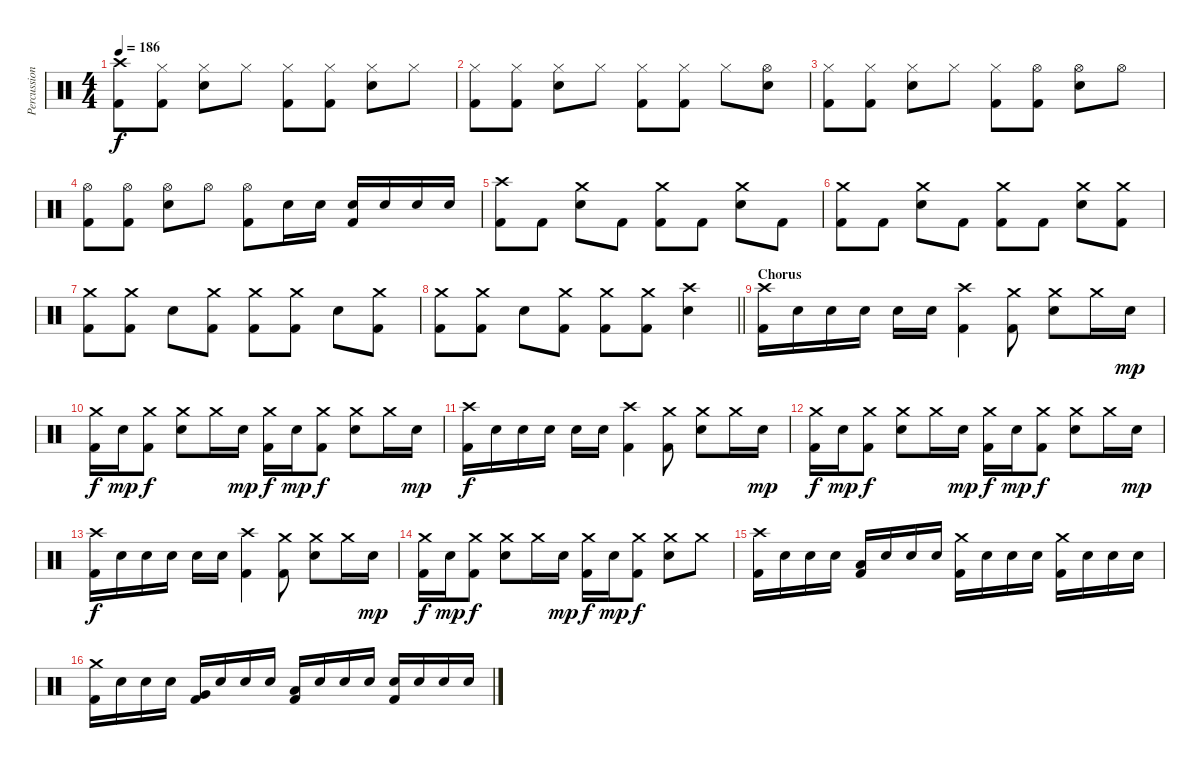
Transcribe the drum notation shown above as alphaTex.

\track ("Percussion" "Percussion") {instrument percussion}
\staff {score}
\articulation defaults
\ts (4 4)
\tempo 186
\clef neutral
\ks c
("Crash high (hit)" "Kick (hit) 2").8{dy f} ("Hi-Hat (closed)" "Kick (hit) 2").8 ("Hi-Hat (closed)" "Electric Snare (hit)").8 "Hi-Hat (closed)".8 ("Hi-Hat (closed)" "Kick (hit) 2").8 ("Hi-Hat (closed)" "Kick (hit) 2").8 ("Hi-Hat (closed)" "Electric Snare (hit)").8 "Hi-Hat (closed)".8 |
("Hi-Hat (closed)" "Kick (hit) 2").8 ("Hi-Hat (closed)" "Kick (hit) 2").8 ("Hi-Hat (closed)" "Electric Snare (hit)").8 "Hi-Hat (closed)".8 ("Hi-Hat (closed)" "Kick (hit) 2").8 ("Hi-Hat (closed)" "Kick (hit) 2").8 "Hi-Hat (closed)".8 ("Hi-Hat (open)" "Electric Snare (hit)").8 |
("Hi-Hat (closed)" "Kick (hit) 2").8 ("Hi-Hat (closed)" "Kick (hit) 2").8 ("Hi-Hat (closed)" "Electric Snare (hit)").8 "Hi-Hat (closed)".8 ("Hi-Hat (closed)" "Kick (hit) 2").8 ("Hi-Hat (open)" "Kick (hit) 2").8 ("Hi-Hat (open)" "Electric Snare (hit)").8 "Hi-Hat (open)".8 |
("Hi-Hat (open)" "Kick (hit) 2").8 ("Hi-Hat (open)" "Kick (hit) 2").8 ("Hi-Hat (open)" "Electric Snare (hit)").8 "Hi-Hat (open)".8 ("Hi-Hat (open)" "Kick (hit) 2").8 "Electric Snare (hit)".16 "Electric Snare (hit)".16 ("Electric Snare (hit)" "Kick (hit) 2").16 "Electric Snare (hit)".16 "Electric Snare (hit)".16 "Electric Snare (hit)".16 |
("Crash high (hit)" "Kick (hit) 2").8 "Kick (hit) 2".8 ("Crash medium (hit)" "Electric Snare (hit)").8 "Kick (hit) 2".8 ("Crash medium (hit)" "Kick (hit) 2").8 "Kick (hit) 2".8 ("Crash medium (hit)" "Electric Snare (hit)").8 "Kick (hit) 2".8 |
("Crash medium (hit)" "Kick (hit) 2").8 "Kick (hit) 2".8 ("Crash medium (hit)" "Electric Snare (hit)").8 "Kick (hit) 2".8 ("Crash medium (hit)" "Kick (hit) 2").8 "Kick (hit) 2".8 ("Crash medium (hit)" "Electric Snare (hit)").8 ("Crash medium (hit)" "Kick (hit) 2").8 |
("Crash medium (hit)" "Kick (hit) 2").8 ("Crash medium (hit)" "Kick (hit) 2").8 "Electric Snare (hit)".8 ("Crash medium (hit)" "Kick (hit) 2").8 ("Crash medium (hit)" "Kick (hit) 2").8 ("Crash medium (hit)" "Kick (hit) 2").8 "Electric Snare (hit)".8 ("Crash medium (hit)" "Kick (hit) 2").8 |
\barLineRight lightlight
("Crash medium (hit)" "Kick (hit) 2").8 ("Crash medium (hit)" "Kick (hit) 2").8 "Electric Snare (hit)".8 ("Crash medium (hit)" "Kick (hit) 2").8 ("Crash medium (hit)" "Kick (hit) 2").8 ("Crash medium (hit)" "Kick (hit) 2").8 ("Crash high (hit)" "Electric Snare (hit)").4 |
\section ("" "Chorus")
("Crash high (hit)" "Kick (hit) 2").16 "Electric Snare (hit)".16 "Electric Snare (hit)".16 "Electric Snare (hit)".16 "Electric Snare (hit)".16 "Electric Snare (hit)".16 ("Crash high (hit)" "Kick (hit) 2").4 ("Crash medium (hit)" "Kick (hit) 2").8 ("Crash medium (hit)" "Electric Snare (hit)").8 "Crash medium (hit)".16 "Electric Snare (hit)".16{dy mp} |
("Crash medium (hit)" "Kick (hit) 2").16{dy f} "Electric Snare (hit)".16{dy mp} ("Crash medium (hit)" "Kick (hit) 2").8{dy f} ("Crash medium (hit)" "Electric Snare (hit)").8 "Crash medium (hit)".16 "Electric Snare (hit)".16{dy mp} ("Crash medium (hit)" "Kick (hit) 2").16{dy f} "Electric Snare (hit)".16{dy mp} ("Crash medium (hit)" "Kick (hit) 2").8{dy f} ("Crash medium (hit)" "Electric Snare (hit)").8 "Crash medium (hit)".16 "Electric Snare (hit)".16{dy mp} |
("Crash high (hit)" "Kick (hit) 2").16{dy f} "Electric Snare (hit)".16 "Electric Snare (hit)".16 "Electric Snare (hit)".16 "Electric Snare (hit)".16 "Electric Snare (hit)".16 ("Crash high (hit)" "Kick (hit) 2").4 ("Crash medium (hit)" "Kick (hit) 2").8 ("Crash medium (hit)" "Electric Snare (hit)").8 "Crash medium (hit)".16 "Electric Snare (hit)".16{dy mp} |
("Crash medium (hit)" "Kick (hit) 2").16{dy f} "Electric Snare (hit)".16{dy mp} ("Crash medium (hit)" "Kick (hit) 2").8{dy f} ("Crash medium (hit)" "Electric Snare (hit)").8 "Crash medium (hit)".16 "Electric Snare (hit)".16{dy mp} ("Crash medium (hit)" "Kick (hit) 2").16{dy f} "Electric Snare (hit)".16{dy mp} ("Crash medium (hit)" "Kick (hit) 2").8{dy f} ("Crash medium (hit)" "Electric Snare (hit)").8 "Crash medium (hit)".16 "Electric Snare (hit)".16{dy mp} |
("Crash high (hit)" "Kick (hit) 2").16{dy f} "Electric Snare (hit)".16 "Electric Snare (hit)".16 "Electric Snare (hit)".16 "Electric Snare (hit)".16 "Electric Snare (hit)".16 ("Crash high (hit)" "Kick (hit) 2").4 ("Crash medium (hit)" "Kick (hit) 2").8 ("Crash medium (hit)" "Electric Snare (hit)").8 "Crash medium (hit)".16 "Electric Snare (hit)".16{dy mp} |
("Crash medium (hit)" "Kick (hit) 2").16{dy f} "Electric Snare (hit)".16{dy mp} ("Crash medium (hit)" "Kick (hit) 2").8{dy f} ("Crash medium (hit)" "Electric Snare (hit)").8 "Crash medium (hit)".16 "Electric Snare (hit)".16{dy mp} ("Crash medium (hit)" "Kick (hit) 2").16{dy f} "Electric Snare (hit)".16{dy mp} ("Crash medium (hit)" "Kick (hit) 2").8{dy f} ("Crash medium (hit)" "Electric Snare (hit)").8 "Crash medium (hit)".8 |
("Crash high (hit)" "Kick (hit) 2").16 "Electric Snare (hit)".16 "Electric Snare (hit)".16 "Electric Snare (hit)".16 ("Low Tom (hit)" "Kick (hit) 2").16 "Electric Snare (hit)".16 "Electric Snare (hit)".16 "Electric Snare (hit)".16 ("Crash medium (hit)" "Kick (hit) 2").16 "Electric Snare (hit)".16 "Electric Snare (hit)".16 "Electric Snare (hit)".16 ("Crash medium (hit)" "Kick (hit) 2").16 "Electric Snare (hit)".16 "Electric Snare (hit)".16 "Electric Snare (hit)".16 |
("Crash medium (hit)" "Kick (hit) 2").16 "Electric Snare (hit)".16 "Electric Snare (hit)".16 "Electric Snare (hit)".16 ("Very Low Tom (hit)" "Kick (hit) 2").16 "Electric Snare (hit)".16 "Electric Snare (hit)".16 "Electric Snare (hit)".16 ("Low Floor Tom (hit)" "Kick (hit) 2").16 "Electric Snare (hit)".16 "Electric Snare (hit)".16 "Electric Snare (hit)".16 ("Electric Snare (hit)" "Kick (hit) 2").16 "Electric Snare (hit)".16 "Electric Snare (hit)".16 "Electric Snare (hit)".16
